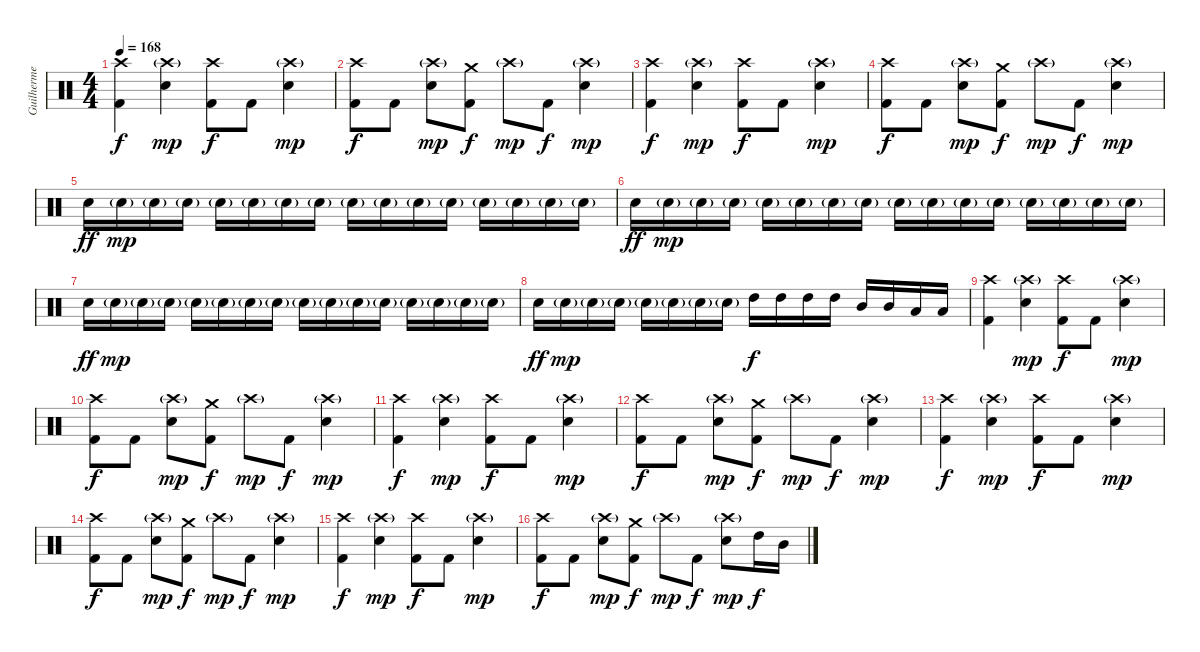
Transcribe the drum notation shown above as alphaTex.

\track ("Guilherme" "Guilherme") {instrument percussion}
\staff {score}
\articulation defaults
\ts (4 4)
\tempo 168
\clef neutral
\ks c
("Crash high (hit)" "Kick (hit) 2").4{dy f} ("Crash high (hit)"{g} "Snare (hit) 2").4{dy mp} ("Crash high (hit)" "Kick (hit) 2").8{dy f} "Kick (hit) 2".8 ("Crash high (hit)"{g} "Snare (hit) 2").4{dy mp} |
("Crash high (hit)" "Kick (hit) 2").8{dy f} "Kick (hit) 2".8 ("Crash high (hit)"{g} "Snare (hit) 2").8{dy mp} ("Crash medium (hit)" "Kick (hit) 2").8{dy f} "Crash high (hit)"{g}.8{dy mp} "Kick (hit) 2".8{dy f} ("Crash high (hit)"{g} "Snare (hit) 2").4{dy mp} |
("Crash high (hit)" "Kick (hit) 2").4{dy f} ("Crash high (hit)"{g} "Snare (hit) 2").4{dy mp} ("Crash high (hit)" "Kick (hit) 2").8{dy f} "Kick (hit) 2".8 ("Crash high (hit)"{g} "Snare (hit) 2").4{dy mp} |
("Crash high (hit)" "Kick (hit) 2").8{dy f} "Kick (hit) 2".8 ("Crash high (hit)"{g} "Snare (hit) 2").8{dy mp} ("Crash medium (hit)" "Kick (hit) 2").8{dy f} "Crash high (hit)"{g}.8{dy mp} "Kick (hit) 2".8{dy f} ("Crash high (hit)"{g} "Snare (hit) 2").4{dy mp} |
"Snare (hit) 2".16{dy ff} "Snare (hit) 2"{g}.16{dy mp} "Snare (hit) 2"{g}.16 "Snare (hit) 2"{g}.16 "Snare (hit) 2"{g}.16 "Snare (hit) 2"{g}.16 "Snare (hit) 2"{g}.16 "Snare (hit) 2"{g}.16 "Snare (hit) 2"{g}.16 "Snare (hit) 2"{g}.16 "Snare (hit) 2"{g}.16 "Snare (hit) 2"{g}.16 "Snare (hit) 2"{g}.16 "Snare (hit) 2"{g}.16 "Snare (hit) 2"{g}.16 "Snare (hit) 2"{g}.16 |
"Snare (hit) 2".16{dy ff} "Snare (hit) 2"{g}.16{dy mp} "Snare (hit) 2"{g}.16 "Snare (hit) 2"{g}.16 "Snare (hit) 2"{g}.16 "Snare (hit) 2"{g}.16 "Snare (hit) 2"{g}.16 "Snare (hit) 2"{g}.16 "Snare (hit) 2"{g}.16 "Snare (hit) 2"{g}.16 "Snare (hit) 2"{g}.16 "Snare (hit) 2"{g}.16 "Snare (hit) 2"{g}.16 "Snare (hit) 2"{g}.16 "Snare (hit) 2"{g}.16 "Snare (hit) 2"{g}.16 |
"Snare (hit) 2".16{dy ff} "Snare (hit) 2"{g}.16{dy mp} "Snare (hit) 2"{g}.16 "Snare (hit) 2"{g}.16 "Snare (hit) 2"{g}.16 "Snare (hit) 2"{g}.16 "Snare (hit) 2"{g}.16 "Snare (hit) 2"{g}.16 "Snare (hit) 2"{g}.16 "Snare (hit) 2"{g}.16 "Snare (hit) 2"{g}.16 "Snare (hit) 2"{g}.16 "Snare (hit) 2"{g}.16 "Snare (hit) 2"{g}.16 "Snare (hit) 2"{g}.16 "Snare (hit) 2"{g}.16 |
"Snare (hit) 2".16{dy ff} "Snare (hit) 2"{g}.16{dy mp} "Snare (hit) 2"{g}.16 "Snare (hit) 2"{g}.16 "Snare (hit) 2"{g}.16 "Snare (hit) 2"{g}.16 "Snare (hit) 2"{g}.16 "Snare (hit) 2"{g}.16 "High Tom (hit)".16{dy f} "High Tom (hit)".16 "High Tom (hit)".16 "High Tom (hit)".16 "Mid Tom (hit)".16 "Mid Tom (hit)".16 "Low Tom (hit)".16 "Low Tom (hit)".16 |
("Crash high (hit)" "Kick (hit) 2").4 ("Crash high (hit)"{g} "Snare (hit) 2").4{dy mp} ("Crash high (hit)" "Kick (hit) 2").8{dy f} "Kick (hit) 2".8 ("Crash high (hit)"{g} "Snare (hit) 2").4{dy mp} |
("Crash high (hit)" "Kick (hit) 2").8{dy f} "Kick (hit) 2".8 ("Crash high (hit)"{g} "Snare (hit) 2").8{dy mp} ("Crash medium (hit)" "Kick (hit) 2").8{dy f} "Crash high (hit)"{g}.8{dy mp} "Kick (hit) 2".8{dy f} ("Crash high (hit)"{g} "Snare (hit) 2").4{dy mp} |
("Crash high (hit)" "Kick (hit) 2").4{dy f} ("Crash high (hit)"{g} "Snare (hit) 2").4{dy mp} ("Crash high (hit)" "Kick (hit) 2").8{dy f} "Kick (hit) 2".8 ("Crash high (hit)"{g} "Snare (hit) 2").4{dy mp} |
("Crash high (hit)" "Kick (hit) 2").8{dy f} "Kick (hit) 2".8 ("Crash high (hit)"{g} "Snare (hit) 2").8{dy mp} ("Crash medium (hit)" "Kick (hit) 2").8{dy f} "Crash high (hit)"{g}.8{dy mp} "Kick (hit) 2".8{dy f} ("Crash high (hit)"{g} "Snare (hit) 2").4{dy mp} |
("Crash high (hit)" "Kick (hit) 2").4{dy f} ("Crash high (hit)"{g} "Snare (hit) 2").4{dy mp} ("Crash high (hit)" "Kick (hit) 2").8{dy f} "Kick (hit) 2".8 ("Crash high (hit)"{g} "Snare (hit) 2").4{dy mp} |
("Crash high (hit)" "Kick (hit) 2").8{dy f} "Kick (hit) 2".8 ("Crash high (hit)"{g} "Snare (hit) 2").8{dy mp} ("Crash medium (hit)" "Kick (hit) 2").8{dy f} "Crash high (hit)"{g}.8{dy mp} "Kick (hit) 2".8{dy f} ("Crash high (hit)"{g} "Snare (hit) 2").4{dy mp} |
("Crash high (hit)" "Kick (hit) 2").4{dy f} ("Crash high (hit)"{g} "Snare (hit) 2").4{dy mp} ("Crash high (hit)" "Kick (hit) 2").8{dy f} "Kick (hit) 2".8 ("Crash high (hit)"{g} "Snare (hit) 2").4{dy mp} |
("Crash high (hit)" "Kick (hit) 2").8{dy f} "Kick (hit) 2".8 ("Crash high (hit)"{g} "Snare (hit) 2").8{dy mp} ("Crash medium (hit)" "Kick (hit) 2").8{dy f} "Crash high (hit)"{g}.8{dy mp} "Kick (hit) 2".8{dy f} ("Crash high (hit)"{g} "Snare (hit) 2").8{dy mp} "High Tom (hit)".16{dy f} "Mid Tom (hit)".16
